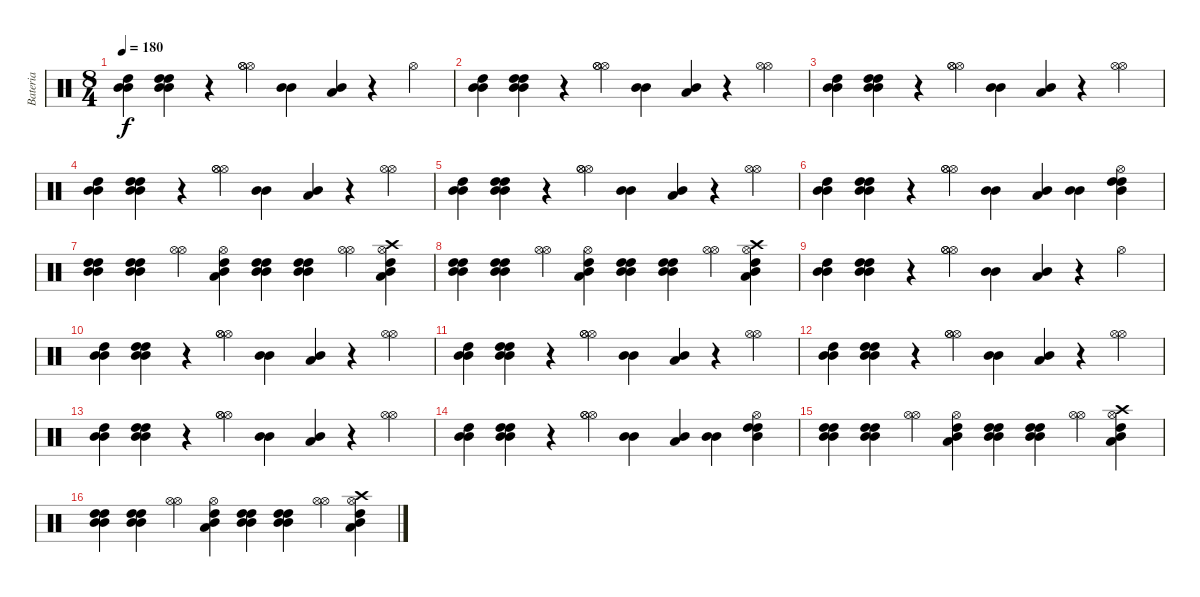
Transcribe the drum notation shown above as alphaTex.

\track ("Bateria" "Bateria") {instrument percussion}
\staff {score}
\articulation defaults
\ts (8 4)
\tempo 180
\clef neutral
\ks c
("High Tom (hit)" "Mid Tom (hit)" "Mid Tom (hit)").4{dy f} ("High Tom (hit)" "High Tom (hit)" "Mid Tom (hit)" "Mid Tom (hit)").4 r.4 ("Hi-Hat (open)" "Hi-Hat (open)" "Hi-Hat (open)").4 ("Mid Tom (hit)" "Mid Tom (hit)").4 ("Low Tom (hit)" "Mid Tom (hit)").4 r.4 "Hi-Hat (open)".4 |
("High Tom (hit)" "Mid Tom (hit)" "Mid Tom (hit)").4 ("High Tom (hit)" "High Tom (hit)" "Mid Tom (hit)" "Mid Tom (hit)").4 r.4 ("Hi-Hat (open)" "Hi-Hat (open)" "Hi-Hat (open)").4 ("Mid Tom (hit)" "Mid Tom (hit)").4 ("Low Tom (hit)" "Mid Tom (hit)").4 r.4 ("Hi-Hat (open)" "Hi-Hat (open)").4 |
("High Tom (hit)" "Mid Tom (hit)" "Mid Tom (hit)").4 ("High Tom (hit)" "High Tom (hit)" "Mid Tom (hit)" "Mid Tom (hit)").4 r.4 ("Hi-Hat (open)" "Hi-Hat (open)" "Hi-Hat (open)").4 ("Mid Tom (hit)" "Mid Tom (hit)").4 ("Low Tom (hit)" "Mid Tom (hit)").4 r.4 ("Hi-Hat (open)" "Hi-Hat (open)").4 |
("High Tom (hit)" "Mid Tom (hit)" "Mid Tom (hit)").4 ("High Tom (hit)" "High Tom (hit)" "Mid Tom (hit)" "Mid Tom (hit)").4 r.4 ("Hi-Hat (open)" "Hi-Hat (open)" "Hi-Hat (open)").4 ("Mid Tom (hit)" "Mid Tom (hit)").4 ("Low Tom (hit)" "Mid Tom (hit)").4 r.4 ("Hi-Hat (open)" "Hi-Hat (open)").4 |
("High Tom (hit)" "Mid Tom (hit)" "Mid Tom (hit)").4 ("High Tom (hit)" "High Tom (hit)" "Mid Tom (hit)" "Mid Tom (hit)").4 r.4 ("Hi-Hat (open)" "Hi-Hat (open)" "Hi-Hat (open)").4 ("Mid Tom (hit)" "Mid Tom (hit)").4 ("Low Tom (hit)" "Mid Tom (hit)").4 r.4 ("Hi-Hat (open)" "Hi-Hat (open)").4 |
("High Tom (hit)" "Mid Tom (hit)" "Mid Tom (hit)").4 ("High Tom (hit)" "High Tom (hit)" "Mid Tom (hit)" "Mid Tom (hit)").4 r.4 ("Hi-Hat (open)" "Hi-Hat (open)" "Hi-Hat (open)").4 ("Mid Tom (hit)" "Mid Tom (hit)").4 ("Low Tom (hit)" "Mid Tom (hit)").4 ("Mid Tom (hit)" "Mid Tom (hit)").4 ("High Tom (hit)" "Hi-Hat (open)" "High Tom (hit)" "Mid Tom (hit)").4 |
("Mid Tom (hit)" "High Tom (hit)" "Mid Tom (hit)" "High Tom (hit)").4 ("Mid Tom (hit)" "High Tom (hit)" "Mid Tom (hit)" "High Tom (hit)").4 ("Hi-Hat (open)" "Hi-Hat (open)").4 ("Low Tom (hit)" "Mid Tom (hit)" "High Tom (hit)" "Hi-Hat (open)").4 ("Mid Tom (hit)" "High Tom (hit)" "Mid Tom (hit)" "High Tom (hit)").4 ("Mid Tom (hit)" "High Tom (hit)" "Mid Tom (hit)" "High Tom (hit)").4 ("Hi-Hat (open)" "Hi-Hat (open)").4 ("Low Tom (hit)" "Mid Tom (hit)" "High Tom (hit)" "Hi-Hat (open)" "Crash high (hit)").4 |
("Mid Tom (hit)" "High Tom (hit)" "Mid Tom (hit)" "High Tom (hit)").4 ("Mid Tom (hit)" "High Tom (hit)" "Mid Tom (hit)" "High Tom (hit)").4 ("Hi-Hat (open)" "Hi-Hat (open)").4 ("Low Tom (hit)" "Mid Tom (hit)" "High Tom (hit)" "Hi-Hat (open)").4 ("Mid Tom (hit)" "High Tom (hit)" "Mid Tom (hit)" "High Tom (hit)").4 ("Mid Tom (hit)" "High Tom (hit)" "Mid Tom (hit)" "High Tom (hit)").4 ("Hi-Hat (open)" "Hi-Hat (open)").4 ("Low Tom (hit)" "Mid Tom (hit)" "High Tom (hit)" "Hi-Hat (open)" "Crash high (hit)").4 |
("High Tom (hit)" "Mid Tom (hit)" "Mid Tom (hit)").4 ("High Tom (hit)" "High Tom (hit)" "Mid Tom (hit)" "Mid Tom (hit)").4 r.4 ("Hi-Hat (open)" "Hi-Hat (open)" "Hi-Hat (open)").4 ("Mid Tom (hit)" "Mid Tom (hit)").4 ("Low Tom (hit)" "Mid Tom (hit)").4 r.4 "Hi-Hat (open)".4 |
("High Tom (hit)" "Mid Tom (hit)" "Mid Tom (hit)").4 ("High Tom (hit)" "High Tom (hit)" "Mid Tom (hit)" "Mid Tom (hit)").4 r.4 ("Hi-Hat (open)" "Hi-Hat (open)" "Hi-Hat (open)").4 ("Mid Tom (hit)" "Mid Tom (hit)").4 ("Low Tom (hit)" "Mid Tom (hit)").4 r.4 ("Hi-Hat (open)" "Hi-Hat (open)").4 |
("High Tom (hit)" "Mid Tom (hit)" "Mid Tom (hit)").4 ("High Tom (hit)" "High Tom (hit)" "Mid Tom (hit)" "Mid Tom (hit)").4 r.4 ("Hi-Hat (open)" "Hi-Hat (open)" "Hi-Hat (open)").4 ("Mid Tom (hit)" "Mid Tom (hit)").4 ("Low Tom (hit)" "Mid Tom (hit)").4 r.4 ("Hi-Hat (open)" "Hi-Hat (open)").4 |
("High Tom (hit)" "Mid Tom (hit)" "Mid Tom (hit)").4 ("High Tom (hit)" "High Tom (hit)" "Mid Tom (hit)" "Mid Tom (hit)").4 r.4 ("Hi-Hat (open)" "Hi-Hat (open)" "Hi-Hat (open)").4 ("Mid Tom (hit)" "Mid Tom (hit)").4 ("Low Tom (hit)" "Mid Tom (hit)").4 r.4 ("Hi-Hat (open)" "Hi-Hat (open)").4 |
("High Tom (hit)" "Mid Tom (hit)" "Mid Tom (hit)").4 ("High Tom (hit)" "High Tom (hit)" "Mid Tom (hit)" "Mid Tom (hit)").4 r.4 ("Hi-Hat (open)" "Hi-Hat (open)" "Hi-Hat (open)").4 ("Mid Tom (hit)" "Mid Tom (hit)").4 ("Low Tom (hit)" "Mid Tom (hit)").4 r.4 ("Hi-Hat (open)" "Hi-Hat (open)").4 |
("High Tom (hit)" "Mid Tom (hit)" "Mid Tom (hit)").4 ("High Tom (hit)" "High Tom (hit)" "Mid Tom (hit)" "Mid Tom (hit)").4 r.4 ("Hi-Hat (open)" "Hi-Hat (open)" "Hi-Hat (open)").4 ("Mid Tom (hit)" "Mid Tom (hit)").4 ("Low Tom (hit)" "Mid Tom (hit)").4 ("Mid Tom (hit)" "Mid Tom (hit)").4 ("High Tom (hit)" "Hi-Hat (open)" "High Tom (hit)" "Mid Tom (hit)").4 |
("Mid Tom (hit)" "High Tom (hit)" "Mid Tom (hit)" "High Tom (hit)").4 ("Mid Tom (hit)" "High Tom (hit)" "Mid Tom (hit)" "High Tom (hit)").4 ("Hi-Hat (open)" "Hi-Hat (open)").4 ("Low Tom (hit)" "Mid Tom (hit)" "High Tom (hit)" "Hi-Hat (open)").4 ("Mid Tom (hit)" "High Tom (hit)" "Mid Tom (hit)" "High Tom (hit)").4 ("Mid Tom (hit)" "High Tom (hit)" "Mid Tom (hit)" "High Tom (hit)").4 ("Hi-Hat (open)" "Hi-Hat (open)").4 ("Low Tom (hit)" "Mid Tom (hit)" "High Tom (hit)" "Hi-Hat (open)" "Crash high (hit)").4 |
("Mid Tom (hit)" "High Tom (hit)" "Mid Tom (hit)" "High Tom (hit)").4 ("Mid Tom (hit)" "High Tom (hit)" "Mid Tom (hit)" "High Tom (hit)").4 ("Hi-Hat (open)" "Hi-Hat (open)").4 ("Low Tom (hit)" "Mid Tom (hit)" "High Tom (hit)" "Hi-Hat (open)").4 ("Mid Tom (hit)" "High Tom (hit)" "Mid Tom (hit)" "High Tom (hit)").4 ("Mid Tom (hit)" "High Tom (hit)" "Mid Tom (hit)" "High Tom (hit)").4 ("Hi-Hat (open)" "Hi-Hat (open)").4 ("Low Tom (hit)" "Mid Tom (hit)" "High Tom (hit)" "Hi-Hat (open)" "Crash high (hit)").4
